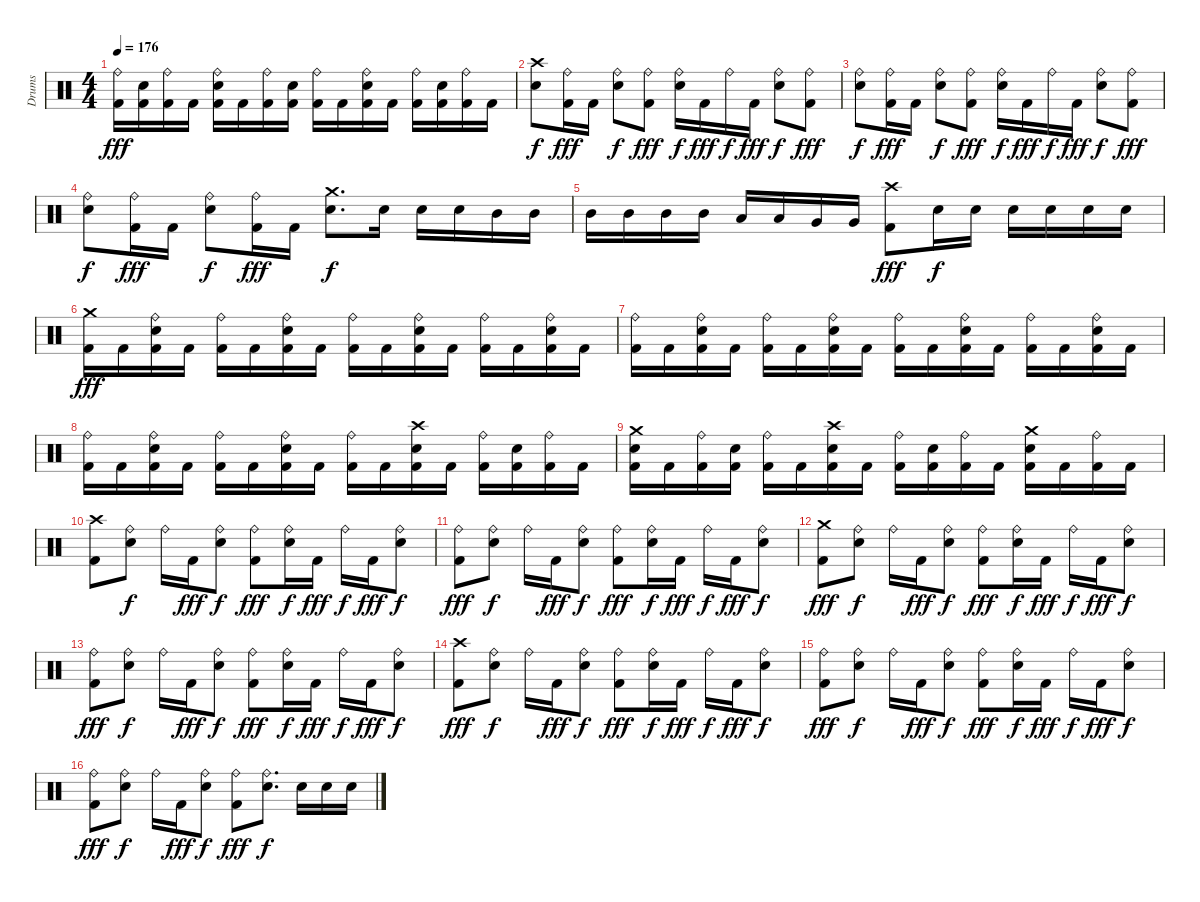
\track ("Drums" "Drums") {instrument percussion}
\staff {score}
\articulation defaults
\ts (4 4)
\tempo 176
\clef neutral
\ks c
("Ride (bell)" "Kick (hit) 2").16{dy fff} ("Snare (hit) 2" "Kick (hit) 2").16 ("Ride (bell)" "Kick (hit) 2").16 "Kick (hit) 2".16 ("Ride (bell)" "Snare (hit) 2" "Kick (hit) 2").16 "Kick (hit) 2".16 ("Ride (bell)" "Kick (hit) 2").16 ("Snare (hit) 2" "Kick (hit) 2").16 ("Ride (bell)" "Kick (hit) 2").16 "Kick (hit) 2".16 ("Ride (bell)" "Snare (hit) 2" "Kick (hit) 2").16 "Kick (hit) 2".16 ("Ride (bell)" "Kick (hit) 2").16 ("Snare (hit) 2" "Kick (hit) 2").16 ("Ride (bell)" "Kick (hit) 2").16 "Kick (hit) 2".16 |
("Crash high (hit)" "Snare (hit) 2").8{dy f} ("Ride (bell)" "Kick (hit) 2").16{dy fff} "Kick (hit) 2".16 ("Ride (bell)" "Snare (hit) 2").8{dy f} ("Ride (bell)" "Kick (hit) 2").8{dy fff} ("Ride (bell)" "Snare (hit) 2").16{dy f} "Kick (hit) 2".16{dy fff} "Ride (bell)".16{dy f} "Kick (hit) 2".16{dy fff} ("Ride (bell)" "Snare (hit) 2").8{dy f} ("Ride (bell)" "Kick (hit) 2").8{dy fff} |
("Ride (bell)" "Snare (hit) 2").8{dy f} ("Ride (bell)" "Kick (hit) 2").16{dy fff} "Kick (hit) 2".16 ("Ride (bell)" "Snare (hit) 2").8{dy f} ("Ride (bell)" "Kick (hit) 2").8{dy fff} ("Ride (bell)" "Snare (hit) 2").16{dy f} "Kick (hit) 2".16{dy fff} "Ride (bell)".16{dy f} "Kick (hit) 2".16{dy fff} ("Ride (bell)" "Snare (hit) 2").8{dy f} ("Ride (bell)" "Kick (hit) 2").8{dy fff} |
("Ride (bell)" "Snare (hit) 2").8{dy f} ("Ride (bell)" "Kick (hit) 2").16{dy fff} "Kick (hit) 2".16 ("Ride (bell)" "Snare (hit) 2").8{dy f} ("Ride (bell)" "Kick (hit) 2").16{dy fff} "Kick (hit) 2".16 ("Crash medium (hit)" "Snare (hit) 2").8{d dy f} "Snare (hit) 2".16 "Snare (hit) 2".16 "Snare (hit) 2".16 "Mid Tom (hit)".16 "Mid Tom (hit)".16 |
"Mid Tom (hit)".16 "Mid Tom (hit)".16 "Mid Tom (hit)".16 "Mid Tom (hit)".16 "Low Tom (hit)".16 "Low Tom (hit)".16 "Very Low Tom (hit)".16 "Very Low Tom (hit)".16 ("Crash high (hit)" "Kick (hit) 2").8{dy fff} "Snare (hit) 2".16{dy f} "Snare (hit) 2".16 "Snare (hit) 2".16 "Snare (hit) 2".16 "Snare (hit) 2".16 "Snare (hit) 2".16 |
("Crash medium (hit)" "Kick (hit) 2").16{dy fff} "Kick (hit) 2".16 ("Ride (bell)" "Snare (hit) 2" "Kick (hit) 2").16 "Kick (hit) 2".16 ("Ride (bell)" "Kick (hit) 2").16 "Kick (hit) 2".16 ("Ride (bell)" "Snare (hit) 2" "Kick (hit) 2").16 "Kick (hit) 2".16 ("Ride (bell)" "Kick (hit) 2").16 "Kick (hit) 2".16 ("Ride (bell)" "Snare (hit) 2" "Kick (hit) 2").16 "Kick (hit) 2".16 ("Ride (bell)" "Kick (hit) 2").16 "Kick (hit) 2".16 ("Ride (bell)" "Snare (hit) 2" "Kick (hit) 2").16 "Kick (hit) 2".16 |
("Ride (bell)" "Kick (hit) 2").16 "Kick (hit) 2".16 ("Ride (bell)" "Snare (hit) 2" "Kick (hit) 2").16 "Kick (hit) 2".16 ("Ride (bell)" "Kick (hit) 2").16 "Kick (hit) 2".16 ("Ride (bell)" "Snare (hit) 2" "Kick (hit) 2").16 "Kick (hit) 2".16 ("Ride (bell)" "Kick (hit) 2").16 "Kick (hit) 2".16 ("Ride (bell)" "Snare (hit) 2" "Kick (hit) 2").16 "Kick (hit) 2".16 ("Ride (bell)" "Kick (hit) 2").16 "Kick (hit) 2".16 ("Ride (bell)" "Snare (hit) 2" "Kick (hit) 2").16 "Kick (hit) 2".16 |
("Ride (bell)" "Kick (hit) 2").16 "Kick (hit) 2".16 ("Ride (bell)" "Snare (hit) 2" "Kick (hit) 2").16 "Kick (hit) 2".16 ("Ride (bell)" "Kick (hit) 2").16 "Kick (hit) 2".16 ("Ride (bell)" "Snare (hit) 2" "Kick (hit) 2").16 "Kick (hit) 2".16 ("Ride (bell)" "Kick (hit) 2").16 "Kick (hit) 2".16 ("Crash high (hit)" "Snare (hit) 2" "Kick (hit) 2").16 "Kick (hit) 2".16 ("Ride (bell)" "Kick (hit) 2").16 ("Snare (hit) 2" "Kick (hit) 2").16 ("Ride (bell)" "Kick (hit) 2").16 "Kick (hit) 2".16 |
("Crash medium (hit)" "Snare (hit) 2" "Kick (hit) 2").16 "Kick (hit) 2".16 ("Ride (bell)" "Kick (hit) 2").16 ("Snare (hit) 2" "Kick (hit) 2").16 ("Ride (bell)" "Kick (hit) 2").16 "Kick (hit) 2".16 ("Crash high (hit)" "Snare (hit) 2" "Kick (hit) 2").16 "Kick (hit) 2".16 ("Ride (bell)" "Kick (hit) 2").16 ("Snare (hit) 2" "Kick (hit) 2").16 ("Ride (bell)" "Kick (hit) 2").16 "Kick (hit) 2".16 ("Crash medium (hit)" "Snare (hit) 2" "Kick (hit) 2").16 "Kick (hit) 2".16 ("Ride (bell)" "Kick (hit) 2").16 "Kick (hit) 2".16 |
("Crash high (hit)" "Kick (hit) 2").8 ("Ride (bell)" "Snare (hit) 2").8{dy f} "Ride (bell)".16 "Kick (hit) 2".16{dy fff} ("Ride (bell)" "Snare (hit) 2").8{dy f} ("Ride (bell)" "Kick (hit) 2").8{dy fff} ("Ride (bell)" "Snare (hit) 2").16{dy f} "Kick (hit) 2".16{dy fff} "Ride (bell)".16{dy f} "Kick (hit) 2".16{dy fff} ("Ride (bell)" "Snare (hit) 2").8{dy f} |
("Ride (bell)" "Kick (hit) 2").8{dy fff} ("Ride (bell)" "Snare (hit) 2").8{dy f} "Ride (bell)".16 "Kick (hit) 2".16{dy fff} ("Ride (bell)" "Snare (hit) 2").8{dy f} ("Ride (bell)" "Kick (hit) 2").8{dy fff} ("Ride (bell)" "Snare (hit) 2").16{dy f} "Kick (hit) 2".16{dy fff} "Ride (bell)".16{dy f} "Kick (hit) 2".16{dy fff} ("Ride (bell)" "Snare (hit) 2").8{dy f} |
("Crash medium (hit)" "Kick (hit) 2").8{dy fff} ("Ride (bell)" "Snare (hit) 2").8{dy f} "Ride (bell)".16 "Kick (hit) 2".16{dy fff} ("Ride (bell)" "Snare (hit) 2").8{dy f} ("Ride (bell)" "Kick (hit) 2").8{dy fff} ("Ride (bell)" "Snare (hit) 2").16{dy f} "Kick (hit) 2".16{dy fff} "Ride (bell)".16{dy f} "Kick (hit) 2".16{dy fff} ("Ride (bell)" "Snare (hit) 2").8{dy f} |
("Ride (bell)" "Kick (hit) 2").8{dy fff} ("Ride (bell)" "Snare (hit) 2").8{dy f} "Ride (bell)".16 "Kick (hit) 2".16{dy fff} ("Ride (bell)" "Snare (hit) 2").8{dy f} ("Ride (bell)" "Kick (hit) 2").8{dy fff} ("Ride (bell)" "Snare (hit) 2").16{dy f} "Kick (hit) 2".16{dy fff} "Ride (bell)".16{dy f} "Kick (hit) 2".16{dy fff} ("Ride (bell)" "Snare (hit) 2").8{dy f} |
("Crash high (hit)" "Kick (hit) 2").8{dy fff} ("Ride (bell)" "Snare (hit) 2").8{dy f} "Ride (bell)".16 "Kick (hit) 2".16{dy fff} ("Ride (bell)" "Snare (hit) 2").8{dy f} ("Ride (bell)" "Kick (hit) 2").8{dy fff} ("Ride (bell)" "Snare (hit) 2").16{dy f} "Kick (hit) 2".16{dy fff} "Ride (bell)".16{dy f} "Kick (hit) 2".16{dy fff} ("Ride (bell)" "Snare (hit) 2").8{dy f} |
("Ride (bell)" "Kick (hit) 2").8{dy fff} ("Ride (bell)" "Snare (hit) 2").8{dy f} "Ride (bell)".16 "Kick (hit) 2".16{dy fff} ("Ride (bell)" "Snare (hit) 2").8{dy f} ("Ride (bell)" "Kick (hit) 2").8{dy fff} ("Ride (bell)" "Snare (hit) 2").16{dy f} "Kick (hit) 2".16{dy fff} "Ride (bell)".16{dy f} "Kick (hit) 2".16{dy fff} ("Ride (bell)" "Snare (hit) 2").8{dy f} |
("Ride (bell)" "Kick (hit) 2").8{dy fff} ("Ride (bell)" "Snare (hit) 2").8{dy f} "Ride (bell)".16 "Kick (hit) 2".16{dy fff} ("Ride (bell)" "Snare (hit) 2").8{dy f} ("Ride (bell)" "Kick (hit) 2").8{dy fff} ("Ride (bell)" "Snare (hit) 2").8{d dy f} "Snare (hit) 2".16 "Snare (hit) 2".16 "Snare (hit) 2".16
